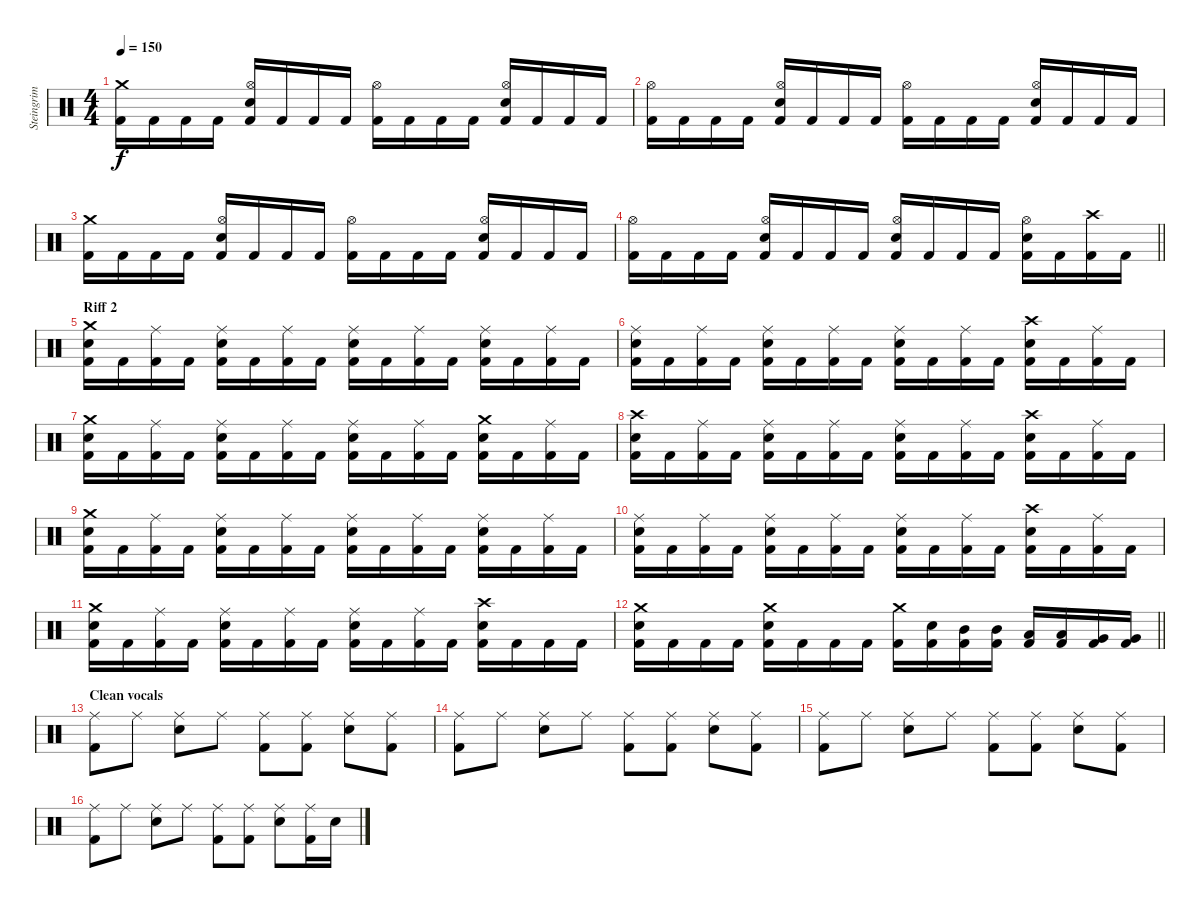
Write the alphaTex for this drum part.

\track ("Steingrim" "Steingrim") {instrument percussion}
\staff {score}
\articulation defaults
\ts (4 4)
\tempo 150
\clef neutral
\ks c
("Crash medium (hit)" "Kick (hit) 2").16{dy f} "Kick (hit) 2".16 "Kick (hit) 2".16 "Kick (hit) 2".16 ("Hi-Hat (open)" "Snare (hit) 2" "Kick (hit) 2").16 "Kick (hit) 2".16 "Kick (hit) 2".16 "Kick (hit) 2".16 ("Hi-Hat (open)" "Kick (hit) 2").16 "Kick (hit) 2".16 "Kick (hit) 2".16 "Kick (hit) 2".16 ("Hi-Hat (open)" "Snare (hit) 2" "Kick (hit) 2").16 "Kick (hit) 2".16 "Kick (hit) 2".16 "Kick (hit) 2".16 |
("Hi-Hat (open)" "Kick (hit) 2").16 "Kick (hit) 2".16 "Kick (hit) 2".16 "Kick (hit) 2".16 ("Hi-Hat (open)" "Snare (hit) 2" "Kick (hit) 2").16 "Kick (hit) 2".16 "Kick (hit) 2".16 "Kick (hit) 2".16 ("Hi-Hat (open)" "Kick (hit) 2").16 "Kick (hit) 2".16 "Kick (hit) 2".16 "Kick (hit) 2".16 ("Hi-Hat (open)" "Snare (hit) 2" "Kick (hit) 2").16 "Kick (hit) 2".16 "Kick (hit) 2".16 "Kick (hit) 2".16 |
("Crash medium (hit)" "Kick (hit) 2").16 "Kick (hit) 2".16 "Kick (hit) 2".16 "Kick (hit) 2".16 ("Hi-Hat (open)" "Snare (hit) 2" "Kick (hit) 2").16 "Kick (hit) 2".16 "Kick (hit) 2".16 "Kick (hit) 2".16 ("Hi-Hat (open)" "Kick (hit) 2").16 "Kick (hit) 2".16 "Kick (hit) 2".16 "Kick (hit) 2".16 ("Hi-Hat (open)" "Snare (hit) 2" "Kick (hit) 2").16 "Kick (hit) 2".16 "Kick (hit) 2".16 "Kick (hit) 2".16 |
\barLineRight lightlight
("Hi-Hat (open)" "Kick (hit) 2").16 "Kick (hit) 2".16 "Kick (hit) 2".16 "Kick (hit) 2".16 ("Hi-Hat (open)" "Snare (hit) 2" "Kick (hit) 2").16 "Kick (hit) 2".16 "Kick (hit) 2".16 "Kick (hit) 2".16 ("Hi-Hat (open)" "Snare (hit) 2" "Kick (hit) 2").16 "Kick (hit) 2".16 "Kick (hit) 2".16 "Kick (hit) 2".16 ("Hi-Hat (open)" "Snare (hit) 2" "Kick (hit) 2").16 "Kick (hit) 2".16 ("Crash high (hit)" "Kick (hit) 2").16 "Kick (hit) 2".16 |
\section ("" "Riff 2")
("Crash medium (hit)" "Snare (hit) 2" "Kick (hit) 2").16 "Kick (hit) 2".16 ("Ride (middle)" "Kick (hit) 2").16 "Kick (hit) 2".16 ("Ride (middle)" "Snare (hit) 2" "Kick (hit) 2").16 "Kick (hit) 2".16 ("Ride (middle)" "Kick (hit) 2").16 "Kick (hit) 2".16 ("Ride (middle)" "Snare (hit) 2" "Kick (hit) 2").16 "Kick (hit) 2".16 ("Ride (middle)" "Kick (hit) 2").16 "Kick (hit) 2".16 ("Ride (middle)" "Snare (hit) 2" "Kick (hit) 2").16 "Kick (hit) 2".16 ("Ride (middle)" "Kick (hit) 2").16 "Kick (hit) 2".16 |
("Ride (middle)" "Snare (hit) 2" "Kick (hit) 2").16 "Kick (hit) 2".16 ("Ride (middle)" "Kick (hit) 2").16 "Kick (hit) 2".16 ("Ride (middle)" "Snare (hit) 2" "Kick (hit) 2").16 "Kick (hit) 2".16 ("Ride (middle)" "Kick (hit) 2").16 "Kick (hit) 2".16 ("Ride (middle)" "Snare (hit) 2" "Kick (hit) 2").16 "Kick (hit) 2".16 ("Ride (middle)" "Kick (hit) 2").16 "Kick (hit) 2".16 ("Crash high (hit)" "Snare (hit) 2" "Kick (hit) 2").16 "Kick (hit) 2".16 ("Ride (middle)" "Kick (hit) 2").16 "Kick (hit) 2".16 |
("Crash medium (hit)" "Snare (hit) 2" "Kick (hit) 2").16 "Kick (hit) 2".16 ("Ride (middle)" "Kick (hit) 2").16 "Kick (hit) 2".16 ("Ride (middle)" "Snare (hit) 2" "Kick (hit) 2").16 "Kick (hit) 2".16 ("Ride (middle)" "Kick (hit) 2").16 "Kick (hit) 2".16 ("Ride (middle)" "Snare (hit) 2" "Kick (hit) 2").16 "Kick (hit) 2".16 ("Ride (middle)" "Kick (hit) 2").16 "Kick (hit) 2".16 ("Crash medium (hit)" "Snare (hit) 2" "Kick (hit) 2").16 "Kick (hit) 2".16 ("Ride (middle)" "Kick (hit) 2").16 "Kick (hit) 2".16 |
("Crash high (hit)" "Snare (hit) 2" "Kick (hit) 2").16 "Kick (hit) 2".16 ("Ride (middle)" "Kick (hit) 2").16 "Kick (hit) 2".16 ("Ride (middle)" "Snare (hit) 2" "Kick (hit) 2").16 "Kick (hit) 2".16 ("Ride (middle)" "Kick (hit) 2").16 "Kick (hit) 2".16 ("Ride (middle)" "Snare (hit) 2" "Kick (hit) 2").16 "Kick (hit) 2".16 ("Ride (middle)" "Kick (hit) 2").16 "Kick (hit) 2".16 ("Crash high (hit)" "Snare (hit) 2" "Kick (hit) 2").16 "Kick (hit) 2".16 ("Ride (middle)" "Kick (hit) 2").16 "Kick (hit) 2".16 |
("Crash medium (hit)" "Snare (hit) 2" "Kick (hit) 2").16 "Kick (hit) 2".16 ("Ride (middle)" "Kick (hit) 2").16 "Kick (hit) 2".16 ("Ride (middle)" "Snare (hit) 2" "Kick (hit) 2").16 "Kick (hit) 2".16 ("Ride (middle)" "Kick (hit) 2").16 "Kick (hit) 2".16 ("Ride (middle)" "Snare (hit) 2" "Kick (hit) 2").16 "Kick (hit) 2".16 ("Ride (middle)" "Kick (hit) 2").16 "Kick (hit) 2".16 ("Ride (middle)" "Snare (hit) 2" "Kick (hit) 2").16 "Kick (hit) 2".16 ("Ride (middle)" "Kick (hit) 2").16 "Kick (hit) 2".16 |
("Ride (middle)" "Snare (hit) 2" "Kick (hit) 2").16 "Kick (hit) 2".16 ("Ride (middle)" "Kick (hit) 2").16 "Kick (hit) 2".16 ("Ride (middle)" "Snare (hit) 2" "Kick (hit) 2").16 "Kick (hit) 2".16 ("Ride (middle)" "Kick (hit) 2").16 "Kick (hit) 2".16 ("Ride (middle)" "Snare (hit) 2" "Kick (hit) 2").16 "Kick (hit) 2".16 ("Ride (middle)" "Kick (hit) 2").16 "Kick (hit) 2".16 ("Crash high (hit)" "Snare (hit) 2" "Kick (hit) 2").16 "Kick (hit) 2".16 ("Ride (middle)" "Kick (hit) 2").16 "Kick (hit) 2".16 |
("Crash medium (hit)" "Snare (hit) 2" "Kick (hit) 2").16 "Kick (hit) 2".16 ("Ride (middle)" "Kick (hit) 2").16 "Kick (hit) 2".16 ("Ride (middle)" "Snare (hit) 2" "Kick (hit) 2").16 "Kick (hit) 2".16 ("Ride (middle)" "Kick (hit) 2").16 "Kick (hit) 2".16 ("Ride (middle)" "Snare (hit) 2" "Kick (hit) 2").16 "Kick (hit) 2".16 ("Ride (middle)" "Kick (hit) 2").16 "Kick (hit) 2".16 ("Crash high (hit)" "Snare (hit) 2" "Kick (hit) 2").16 "Kick (hit) 2".16 "Kick (hit) 2".16 "Kick (hit) 2".16 |
\barLineRight lightlight
("Crash medium (hit)" "Snare (hit) 2" "Kick (hit) 2").16 "Kick (hit) 2".16 "Kick (hit) 2".16 "Kick (hit) 2".16 ("Crash medium (hit)" "Snare (hit) 2" "Kick (hit) 2").16 "Kick (hit) 2".16 "Kick (hit) 2".16 "Kick (hit) 2".16 ("Crash medium (hit)" "Kick (hit) 2").16 ("Snare (hit) 2" "Kick (hit) 2").16 ("Mid Tom (hit)" "Kick (hit) 2").16 ("Mid Tom (hit)" "Kick (hit) 2").16 ("Low Tom (hit)" "Kick (hit) 2").16 ("Low Tom (hit)" "Kick (hit) 2").16 ("Very Low Tom (hit)" "Kick (hit) 2").16 ("Very Low Tom (hit)" "Kick (hit) 2").16 |
\section ("" "Clean vocals")
("Ride (middle)" "Kick (hit) 2").8 "Ride (middle)".8 ("Ride (middle)" "Snare (hit) 2").8 "Ride (middle)".8 ("Ride (middle)" "Kick (hit) 2").8 ("Ride (middle)" "Kick (hit) 2").8 ("Ride (middle)" "Snare (hit) 2").8 ("Ride (middle)" "Kick (hit) 2").8 |
("Ride (middle)" "Kick (hit) 2").8 "Ride (middle)".8 ("Ride (middle)" "Snare (hit) 2").8 "Ride (middle)".8 ("Ride (middle)" "Kick (hit) 2").8 ("Ride (middle)" "Kick (hit) 2").8 ("Ride (middle)" "Snare (hit) 2").8 ("Ride (middle)" "Kick (hit) 2").8 |
("Ride (middle)" "Kick (hit) 2").8 "Ride (middle)".8 ("Ride (middle)" "Snare (hit) 2").8 "Ride (middle)".8 ("Ride (middle)" "Kick (hit) 2").8 ("Ride (middle)" "Kick (hit) 2").8 ("Ride (middle)" "Snare (hit) 2").8 ("Ride (middle)" "Kick (hit) 2").8 |
("Ride (middle)" "Kick (hit) 2").8 "Ride (middle)".8 ("Ride (middle)" "Snare (hit) 2").8 "Ride (middle)".8 ("Ride (middle)" "Kick (hit) 2").8 ("Ride (middle)" "Kick (hit) 2").8 ("Ride (middle)" "Snare (hit) 2").8 ("Ride (middle)" "Kick (hit) 2").16 "Snare (hit) 2".16
